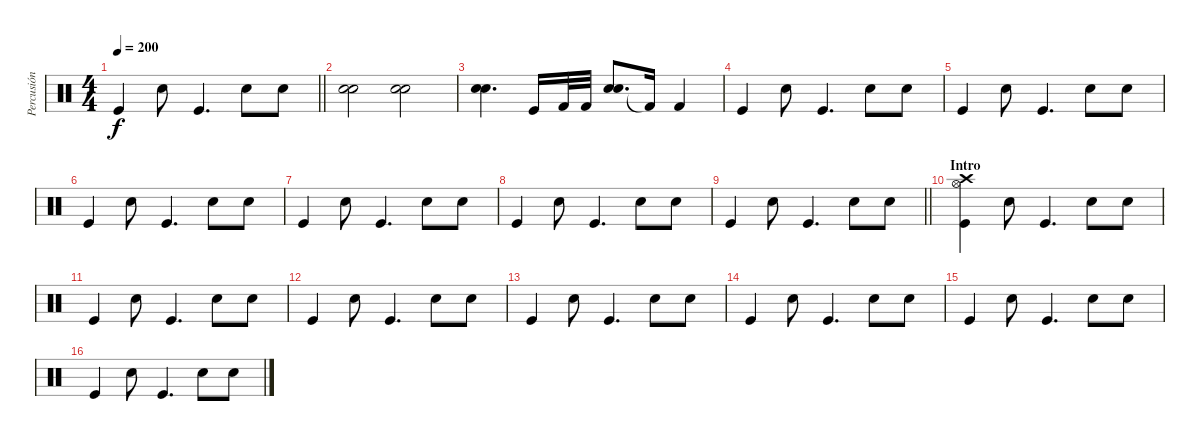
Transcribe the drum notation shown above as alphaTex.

\track ("Percusión" "Percusión") {instrument percussion}
\staff {score}
\articulation defaults
\ts (4 4)
\tempo 200
\clef neutral
\barLineRight lightlight
\ks c "Kick (hit)".4{dy f} "Snare (hit) 2".8 "Kick (hit)".4{d} "Snare (hit) 2".8 "Snare (hit) 2".8
|
\section ("" "")
("Electric Snare (hit)" "Snare (hit) 2").2 ("Electric Snare (hit)" "Snare (hit) 2").2 |
("Electric Snare (hit)" "Snare (hit) 2").4{d} "Kick (hit)".16 "Kick (hit) 2".32 "Kick (hit) 2".32 ("Electric Snare (hit)" "Snare (hit) 2").8{d} "Kick (hit) 2"{t}.16 "Kick (hit) 2".4 |
"Kick (hit)".4 "Snare (hit) 2".8 "Kick (hit)".4{d} "Snare (hit) 2".8 "Snare (hit) 2".8 |
"Kick (hit)".4 "Snare (hit) 2".8 "Kick (hit)".4{d} "Snare (hit) 2".8 "Snare (hit) 2".8 |
"Kick (hit)".4 "Snare (hit) 2".8 "Kick (hit)".4{d} "Snare (hit) 2".8 "Snare (hit) 2".8 |
"Kick (hit)".4 "Snare (hit) 2".8 "Kick (hit)".4{d} "Snare (hit) 2".8 "Snare (hit) 2".8 |
"Kick (hit)".4 "Snare (hit) 2".8 "Kick (hit)".4{d} "Snare (hit) 2".8 "Snare (hit) 2".8 |
\barLineRight lightlight "Kick (hit)".4 "Snare (hit) 2".8 "Kick (hit)".4{d} "Snare (hit) 2".8 "Snare (hit) 2".8
|
\section ("" "Intro")
("Hi-Hat (open)" "Crash high (hit)" "Kick (hit)").4 "Snare (hit) 2".8 "Kick (hit)".4{d} "Snare (hit) 2".8 "Snare (hit) 2".8 |
"Kick (hit)".4 "Snare (hit) 2".8 "Kick (hit)".4{d} "Snare (hit) 2".8 "Snare (hit) 2".8 |
"Kick (hit)".4 "Snare (hit) 2".8 "Kick (hit)".4{d} "Snare (hit) 2".8 "Snare (hit) 2".8 |
"Kick (hit)".4 "Snare (hit) 2".8 "Kick (hit)".4{d} "Snare (hit) 2".8 "Snare (hit) 2".8 |
"Kick (hit)".4 "Snare (hit) 2".8 "Kick (hit)".4{d} "Snare (hit) 2".8 "Snare (hit) 2".8 |
"Kick (hit)".4 "Snare (hit) 2".8 "Kick (hit)".4{d} "Snare (hit) 2".8 "Snare (hit) 2".8 |
"Kick (hit)".4 "Snare (hit) 2".8 "Kick (hit)".4{d} "Snare (hit) 2".8 "Snare (hit) 2".8
